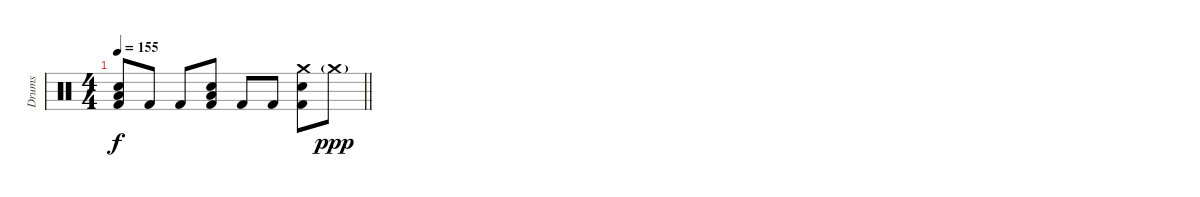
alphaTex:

\track ("Drums" "Drums") {instrument percussion}
\staff {score}
\articulation defaults
\ts (4 4)
\tempo 155
\clef neutral
\barLineRight lightlight
\ks c
("Electric Snare (hit)" "Low Floor Tom (hit)" "Kick (hit) 2").8{dy f} "Kick (hit) 2".8 "Kick (hit) 2".8 ("Electric Snare (hit)" "Low Floor Tom (hit)" "Kick (hit) 2").8 "Kick (hit) 2".8 "Kick (hit) 2".8 ("Crash medium (hit)" "Electric Snare (hit)" "Kick (hit) 2").8 "Crash medium (hit)"{g}.8{dy ppp}
